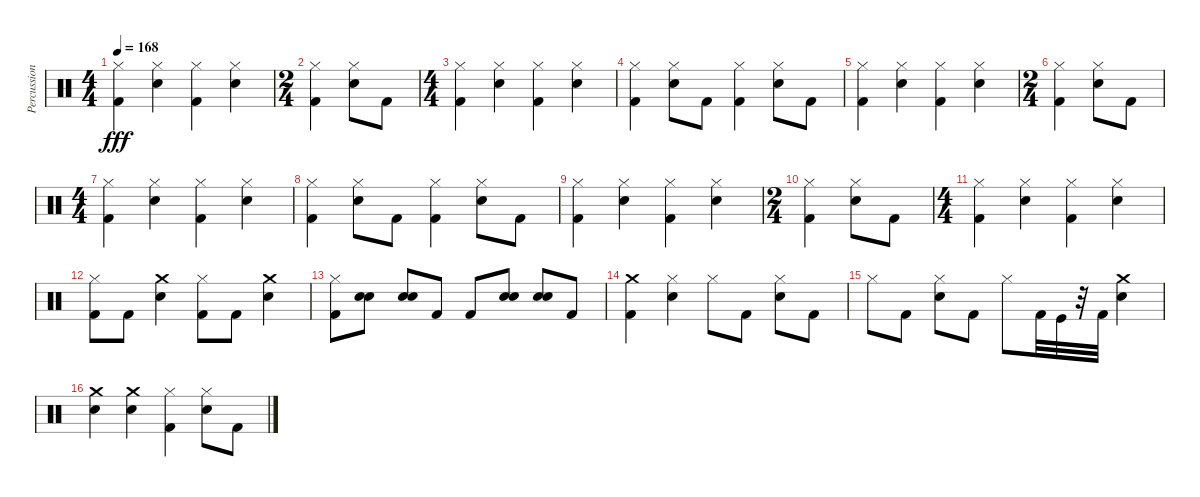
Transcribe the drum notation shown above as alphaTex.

\track ("Percussion" "Percussion") {instrument percussion}
\staff {score}
\articulation defaults
\ts (4 4)
\tempo 168
\clef neutral
\ks c
("Hi-Hat (closed)" "Kick (hit) 2").4{dy fff} ("Hi-Hat (closed)" "Snare (hit) 2").4 ("Hi-Hat (closed)" "Kick (hit) 2").4 ("Snare (hit) 2" "Hi-Hat (closed)").4 |
\ts (2 4)
("Hi-Hat (closed)" "Kick (hit) 2").4 ("Snare (hit) 2" "Hi-Hat (closed)").8 "Kick (hit) 2".8 |
\ts (4 4)
("Kick (hit) 2" "Hi-Hat (closed)").4 ("Snare (hit) 2" "Hi-Hat (closed)").4 ("Kick (hit) 2" "Hi-Hat (closed)").4 ("Snare (hit) 2" "Hi-Hat (closed)").4 |
("Hi-Hat (closed)" "Kick (hit) 2").4 ("Snare (hit) 2" "Hi-Hat (closed)").8 "Kick (hit) 2".8 ("Kick (hit) 2" "Hi-Hat (closed)").4 ("Hi-Hat (closed)" "Snare (hit) 2").8 "Kick (hit) 2".8 |
("Hi-Hat (closed)" "Kick (hit) 2").4 ("Hi-Hat (closed)" "Snare (hit) 2").4 ("Hi-Hat (closed)" "Kick (hit) 2").4 ("Snare (hit) 2" "Hi-Hat (closed)").4 |
\ts (2 4)
("Hi-Hat (closed)" "Kick (hit) 2").4 ("Snare (hit) 2" "Hi-Hat (closed)").8 "Kick (hit) 2".8 |
\ts (4 4)
("Kick (hit) 2" "Hi-Hat (closed)").4 ("Snare (hit) 2" "Hi-Hat (closed)").4 ("Kick (hit) 2" "Hi-Hat (closed)").4 ("Snare (hit) 2" "Hi-Hat (closed)").4 |
("Hi-Hat (closed)" "Kick (hit) 2").4 ("Snare (hit) 2" "Hi-Hat (closed)").8 "Kick (hit) 2".8 ("Kick (hit) 2" "Hi-Hat (closed)").4 ("Hi-Hat (closed)" "Snare (hit) 2").8 "Kick (hit) 2".8 |
("Hi-Hat (closed)" "Kick (hit) 2").4 ("Hi-Hat (closed)" "Snare (hit) 2").4 ("Hi-Hat (closed)" "Kick (hit) 2").4 ("Snare (hit) 2" "Hi-Hat (closed)").4 |
\ts (2 4)
("Hi-Hat (closed)" "Kick (hit) 2").4 ("Snare (hit) 2" "Hi-Hat (closed)").8 "Kick (hit) 2".8 |
\ts (4 4)
("Kick (hit) 2" "Hi-Hat (closed)").4 ("Snare (hit) 2" "Hi-Hat (closed)").4 ("Kick (hit) 2" "Hi-Hat (closed)").4 ("Snare (hit) 2" "Hi-Hat (closed)").4 |
("Kick (hit) 2" "Hi-Hat (closed)").8 "Kick (hit) 2".8 ("Crash medium (hit)" "Snare (hit) 2").4 ("Kick (hit) 2" "Hi-Hat (closed)").8 "Kick (hit) 2".8 ("Crash medium (hit)" "Snare (hit) 2").4 |
("Kick (hit) 2" "Hi-Hat (closed)").8 ("Snare (hit) 2" "Snare (hit) 2").8 ("Snare (hit) 2" "Snare (hit) 2").8 "Kick (hit) 2".8 "Kick (hit) 2".8 ("Snare (hit) 2" "Snare (hit) 2").8 ("Snare (hit) 2" "Snare (hit) 2").8 "Kick (hit) 2".8 |
("Kick (hit) 2" "Crash medium (hit)").4 ("Hi-Hat (closed)" "Snare (hit) 2").4 "Hi-Hat (closed)".8 "Kick (hit) 2".8 ("Snare (hit) 2" "Hi-Hat (closed)").8 "Kick (hit) 2".8 |
"Hi-Hat (closed)".8 "Kick (hit) 2".8 ("Snare (hit) 2" "Hi-Hat (closed)").8 "Kick (hit) 2".8 "Hi-Hat (closed)".8 "Kick (hit) 2".32 "Kick (hit)".32 r.32 "Kick (hit) 2".32 ("Crash medium (hit)" "Snare (hit) 2").4 |
("Crash medium (hit)" "Snare (hit) 2").4 ("Crash medium (hit)" "Snare (hit) 2").4 ("Hi-Hat (closed)" "Kick (hit) 2").4 ("Snare (hit) 2" "Hi-Hat (closed)").8 "Kick (hit) 2".8
